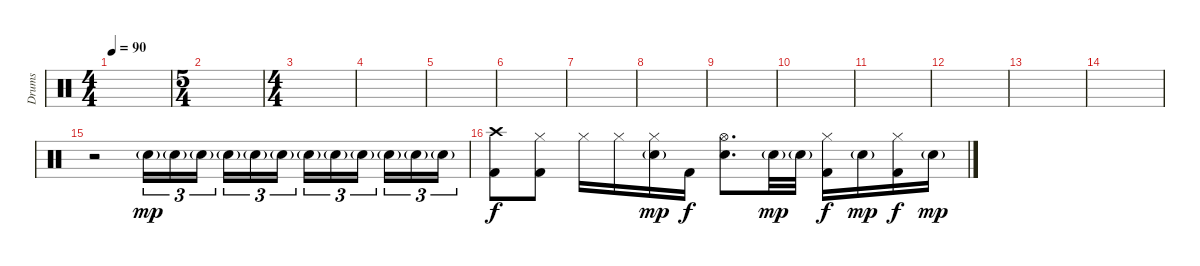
\track ("Drums" "Drums") {instrument percussion}
\staff {score}
\articulation defaults
\ts (4 4)
\tempo 90
\clef neutral
\ks c
|
\ts (5 4)
|
\ts (4 4)
|
|
|
|
|
|
|
|
|
|
|
|
r.2{volume 0} "Electric Snare (hit)"{g}.16{tu (3 2) dy mp volume 10} "Electric Snare (hit)"{g}.16{tu (3 2)} "Electric Snare (hit)"{g}.16{tu (3 2) beam splitsecondary} "Electric Snare (hit)"{g}.16{tu (3 2)} "Electric Snare (hit)"{g}.16{tu (3 2)} "Electric Snare (hit)"{g}.16{tu (3 2)} "Electric Snare (hit)"{g}.16{tu (3 2)} "Electric Snare (hit)"{g}.16{tu (3 2)} "Electric Snare (hit)"{g}.16{tu (3 2) beam splitsecondary} "Electric Snare (hit)"{g}.16{tu (3 2)} "Electric Snare (hit)"{g}.16{tu (3 2)} "Electric Snare (hit)"{g}.16{tu (3 2)} |
("Crash high (hit)" "Kick (hit) 2").8{dy f} ("Hi-Hat (closed)" "Kick (hit) 2").8 "Hi-Hat (closed)".16 "Hi-Hat (closed)".16 ("Hi-Hat (closed)" "Electric Snare (hit)"{g}).16{dy mp} "Kick (hit) 2".16{dy f} ("Electric Snare (hit)" "Hi-Hat (open)").8{d} "Electric Snare (hit)"{g}.32{dy mp} "Electric Snare (hit)"{g}.32 ("Hi-Hat (closed)" "Kick (hit) 2").16{dy f} "Electric Snare (hit)"{g}.16{dy mp} ("Hi-Hat (closed)" "Kick (hit) 2").16{dy f} "Electric Snare (hit)"{g}.16{dy mp}
